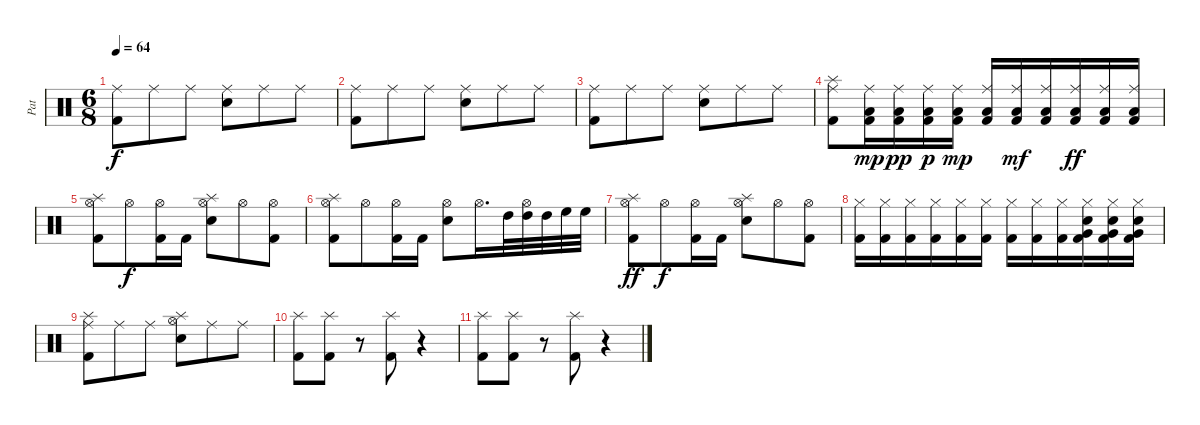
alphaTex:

\track ("Pat" "Pat") {instrument percussion}
\staff {score}
\articulation defaults
\ts (6 8)
\tempo 64
\clef neutral
\ks c
("Kick (hit) 2" "Ride (middle)").8{dy f} "Ride (middle)".8 "Ride (middle)".8 ("Electric Snare (hit)" "Ride (middle)").8 "Ride (middle)".8 "Ride (middle)".8 |
("Kick (hit) 2" "Ride (middle)").8 "Ride (middle)".8 "Ride (middle)".8 ("Snare (hit) 2" "Ride (middle)").8 "Ride (middle)".8 "Ride (middle)".8 |
("Ride (middle)" "Kick (hit) 2").8 "Ride (middle)".8 "Ride (middle)".8 ("Ride (middle)" "Snare (hit) 2").8 "Ride (middle)".8 "Ride (middle)".8 |
("Kick (hit) 2" "Ride (middle)" "Splash (hit)").8 ("Low Tom (hit)" "Kick (hit) 2" "Ride (middle)").16{dy mp} ("Ride (middle)" "Low Tom (hit)" "Kick (hit) 2").16{dy pp} ("Kick (hit) 2" "Ride (middle)" "Low Tom (hit)").16{dy p} ("Ride (middle)" "Low Tom (hit)" "Kick (hit) 2").16{dy mp} ("Ride (middle)" "Low Tom (hit)" "Kick (hit) 2").16 ("Ride (middle)" "Low Tom (hit)" "Kick (hit) 2").16{dy mf} ("Kick (hit) 2" "Ride (middle)" "Low Tom (hit)").16 ("Ride (middle)" "Kick (hit) 2" "Low Tom (hit)").16{dy ff} ("Kick (hit) 2" "Ride (middle)" "Low Tom (hit)").16 ("Low Tom (hit)" "Ride (middle)" "Kick (hit) 2").16 |
("Hi-Hat (open)" "Kick (hit) 2" "Splash (hit)").8 "Hi-Hat (open)".8{dy f} ("Kick (hit) 2" "Hi-Hat (open)").16 "Kick (hit) 2".16 ("Hi-Hat (open)" "Electric Snare (hit)" "Splash (hit)").8 "Hi-Hat (open)".8 ("Hi-Hat (open)" "Kick (hit) 2").8 |
("Splash (hit)" "Hi-Hat (open)" "Kick (hit) 2").8 "Hi-Hat (open)".8 ("Kick (hit) 2" "Hi-Hat (open)").16 "Kick (hit) 2".16 ("Hi-Hat (open)" "Electric Snare (hit)").8 "Hi-Hat (open)".16{d} "High Tom (hit)".32 ("Hi-Hat (open)" "High Tom (hit)").32 "High Tom (hit)".32 "High Floor Tom (hit)".32 "High Floor Tom (hit)".32 |
("Hi-Hat (open)" "Kick (hit) 2" "Splash (hit)").8{dy ff} "Hi-Hat (open)".8{dy f} ("Kick (hit) 2" "Hi-Hat (open)").16 "Kick (hit) 2".16 ("Hi-Hat (open)" "Electric Snare (hit)" "Splash (hit)").8 "Hi-Hat (open)".8 ("Hi-Hat (open)" "Kick (hit) 2").8 |
("Kick (hit) 2" "Hi-Hat (closed)").16 ("Hi-Hat (closed)" "Kick (hit) 2").16 ("Kick (hit) 2" "Hi-Hat (closed)").16 ("Hi-Hat (closed)" "Kick (hit) 2").16 ("Kick (hit) 2" "Hi-Hat (closed)").16 ("Hi-Hat (closed)" "Kick (hit) 2").16 ("Kick (hit) 2" "Hi-Hat (closed)").16 ("Kick (hit) 2" "Hi-Hat (closed)").16 ("Hi-Hat (closed)" "Kick (hit) 2").16 ("Kick (hit) 2" "Hi-Hat (closed)" "Very Low Tom (hit)" "Electric Snare (hit)").16 ("Kick (hit) 2" "Very Low Tom (hit)" "Hi-Hat (closed)" "Electric Snare (hit)").16 ("Kick (hit) 2" "Hi-Hat (closed)" "Electric Snare (hit)" "Very Low Tom (hit)").16 |
("Splash (hit)" "Kick (hit) 2" "Ride (middle)").8 "Ride (middle)".8 "Ride (middle)".8 ("Splash (hit)" "Electric Snare (hit)" "Hi-Hat (open)").8 "Ride (middle)".8 "Ride (middle)".8 |
("Splash (hit)" "Kick (hit) 2").8 ("Splash (hit)" "Kick (hit) 2").8 r.8 ("Kick (hit) 2" "Splash (hit)").8 r.4 |
("Splash (hit)" "Kick (hit) 2").8 ("Splash (hit)" "Kick (hit) 2").8 r.8 ("Kick (hit) 2" "Splash (hit)").8 r.4
